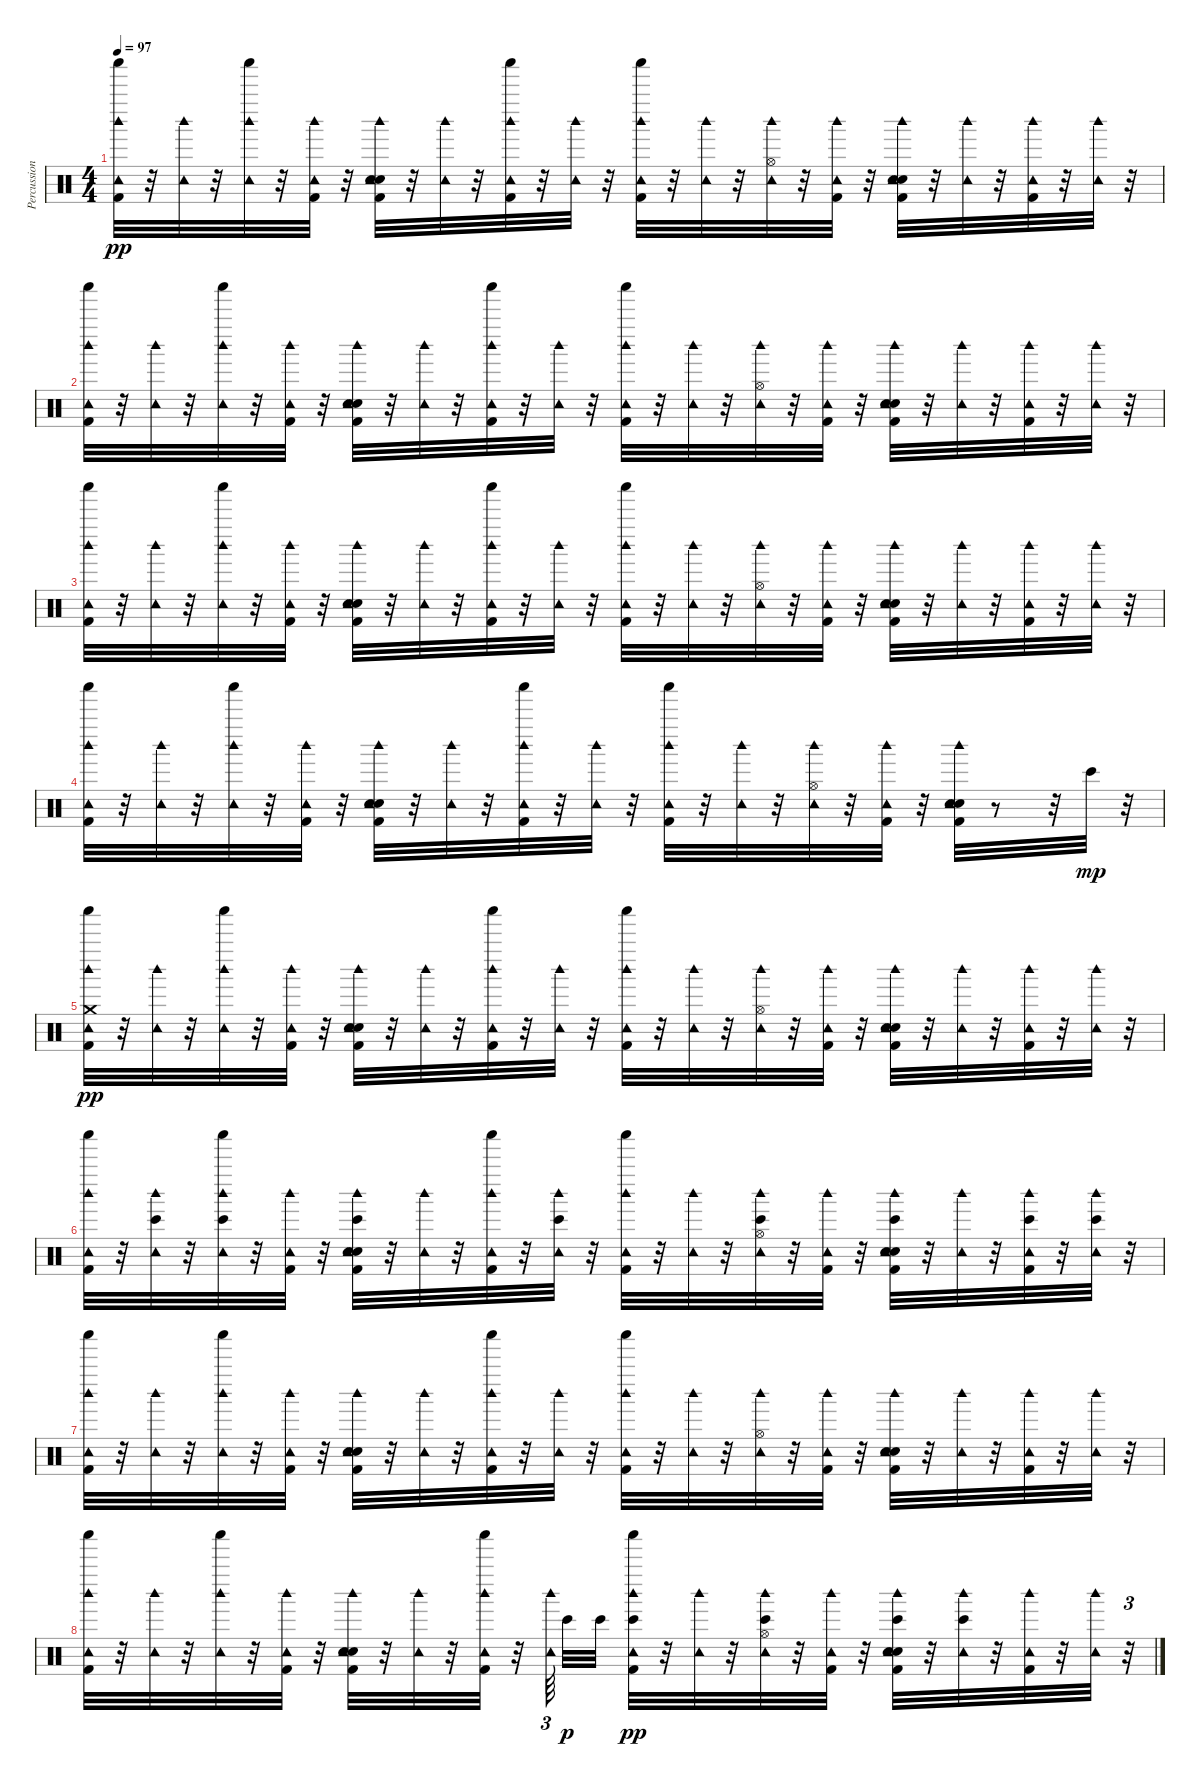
\track ("Percussion" "Percussion") {instrument percussion}
\staff {score}
\articulation defaults
\ts (4 4)
\tempo 97
\clef neutral
\ks c
("Kick (hit) 2" "Tambourine (hit)" "Shaker (hit)" "Woodblock high (hit)").32{dy pp} r.32 ("Tambourine (hit)" "Woodblock high (hit)").32 r.32 ("Tambourine (hit)" "Shaker (hit)" "Woodblock high (hit)").32 r.32 ("Kick (hit) 2" "Tambourine (hit)" "Woodblock high (hit)").32 r.32 ("Kick (hit) 2" "Snare (hit) 2" "Hand Clap (hit)" "Tambourine (hit)" "Woodblock high (hit)").32 r.32 ("Tambourine (hit)" "Woodblock high (hit)").32 r.32 ("Kick (hit) 2" "Tambourine (hit)" "Shaker (hit)" "Woodblock high (hit)").32 r.32 ("Tambourine (hit)" "Woodblock high (hit)").32 r.32 ("Kick (hit) 2" "Tambourine (hit)" "Shaker (hit)" "Woodblock high (hit)").32 r.32 ("Tambourine (hit)" "Woodblock high (hit)").32 r.32 ("Hi-Hat (open)" "Tambourine (hit)" "Woodblock high (hit)").32 r.32 ("Kick (hit) 2" "Tambourine (hit)" "Woodblock high (hit)").32 r.32 ("Kick (hit) 2" "Snare (hit) 2" "Hand Clap (hit)" "Tambourine (hit)" "Woodblock high (hit)").32 r.32 ("Tambourine (hit)" "Woodblock high (hit)").32 r.32 ("Kick (hit) 2" "Tambourine (hit)" "Woodblock high (hit)").32 r.32 ("Tambourine (hit)" "Woodblock high (hit)").32 r.32 |
("Kick (hit) 2" "Tambourine (hit)" "Shaker (hit)" "Woodblock high (hit)").32 r.32 ("Tambourine (hit)" "Woodblock high (hit)").32 r.32 ("Tambourine (hit)" "Shaker (hit)" "Woodblock high (hit)").32 r.32 ("Kick (hit) 2" "Tambourine (hit)" "Woodblock high (hit)").32 r.32 ("Kick (hit) 2" "Snare (hit) 2" "Hand Clap (hit)" "Tambourine (hit)" "Woodblock high (hit)").32 r.32 ("Tambourine (hit)" "Woodblock high (hit)").32 r.32 ("Kick (hit) 2" "Tambourine (hit)" "Shaker (hit)" "Woodblock high (hit)").32 r.32 ("Tambourine (hit)" "Woodblock high (hit)").32 r.32 ("Kick (hit) 2" "Tambourine (hit)" "Shaker (hit)" "Woodblock high (hit)").32 r.32 ("Tambourine (hit)" "Woodblock high (hit)").32 r.32 ("Hi-Hat (open)" "Tambourine (hit)" "Woodblock high (hit)").32 r.32 ("Kick (hit) 2" "Tambourine (hit)" "Woodblock high (hit)").32 r.32 ("Kick (hit) 2" "Snare (hit) 2" "Hand Clap (hit)" "Tambourine (hit)" "Woodblock high (hit)").32 r.32 ("Tambourine (hit)" "Woodblock high (hit)").32 r.32 ("Kick (hit) 2" "Tambourine (hit)" "Woodblock high (hit)").32 r.32 ("Tambourine (hit)" "Woodblock high (hit)").32 r.32 |
("Kick (hit) 2" "Tambourine (hit)" "Shaker (hit)" "Woodblock high (hit)").32 r.32 ("Tambourine (hit)" "Woodblock high (hit)").32 r.32 ("Tambourine (hit)" "Shaker (hit)" "Woodblock high (hit)").32 r.32 ("Kick (hit) 2" "Tambourine (hit)" "Woodblock high (hit)").32 r.32 ("Kick (hit) 2" "Snare (hit) 2" "Hand Clap (hit)" "Tambourine (hit)" "Woodblock high (hit)").32 r.32 ("Tambourine (hit)" "Woodblock high (hit)").32 r.32 ("Kick (hit) 2" "Tambourine (hit)" "Shaker (hit)" "Woodblock high (hit)").32 r.32 ("Tambourine (hit)" "Woodblock high (hit)").32 r.32 ("Kick (hit) 2" "Tambourine (hit)" "Shaker (hit)" "Woodblock high (hit)").32 r.32 ("Tambourine (hit)" "Woodblock high (hit)").32 r.32 ("Hi-Hat (open)" "Tambourine (hit)" "Woodblock high (hit)").32 r.32 ("Kick (hit) 2" "Tambourine (hit)" "Woodblock high (hit)").32 r.32 ("Kick (hit) 2" "Snare (hit) 2" "Hand Clap (hit)" "Tambourine (hit)" "Woodblock high (hit)").32 r.32 ("Tambourine (hit)" "Woodblock high (hit)").32 r.32 ("Kick (hit) 2" "Tambourine (hit)" "Woodblock high (hit)").32 r.32 ("Tambourine (hit)" "Woodblock high (hit)").32 r.32 |
("Kick (hit) 2" "Tambourine (hit)" "Shaker (hit)" "Woodblock high (hit)").32 r.32 ("Tambourine (hit)" "Woodblock high (hit)").32 r.32 ("Tambourine (hit)" "Shaker (hit)" "Woodblock high (hit)").32 r.32 ("Kick (hit) 2" "Tambourine (hit)" "Woodblock high (hit)").32 r.32 ("Kick (hit) 2" "Snare (hit) 2" "Hand Clap (hit)" "Tambourine (hit)" "Woodblock high (hit)").32 r.32 ("Tambourine (hit)" "Woodblock high (hit)").32 r.32 ("Kick (hit) 2" "Tambourine (hit)" "Shaker (hit)" "Woodblock high (hit)").32 r.32 ("Tambourine (hit)" "Woodblock high (hit)").32 r.32 ("Kick (hit) 2" "Tambourine (hit)" "Shaker (hit)" "Woodblock high (hit)").32 r.32 ("Tambourine (hit)" "Woodblock high (hit)").32 r.32 ("Hi-Hat (open)" "Tambourine (hit)" "Woodblock high (hit)").32 r.32 ("Kick (hit) 2" "Tambourine (hit)" "Woodblock high (hit)").32 r.32 ("Kick (hit) 2" "Snare (hit) 2" "Hand Clap (hit)" "Tambourine (hit)" "Woodblock high (hit)").32 r.8 r.32 "Bongo High (hit)".32{dy mp} r.32 |
("Kick (hit) 2" "Tambourine (hit)" "Crash medium (hit)" "Shaker (hit)" "Woodblock high (hit)").32{dy pp} r.32 ("Tambourine (hit)" "Woodblock high (hit)").32 r.32 ("Tambourine (hit)" "Shaker (hit)" "Woodblock high (hit)").32 r.32 ("Kick (hit) 2" "Tambourine (hit)" "Woodblock high (hit)").32 r.32 ("Kick (hit) 2" "Snare (hit) 2" "Hand Clap (hit)" "Tambourine (hit)" "Woodblock high (hit)").32 r.32 ("Tambourine (hit)" "Woodblock high (hit)").32 r.32 ("Kick (hit) 2" "Tambourine (hit)" "Shaker (hit)" "Woodblock high (hit)").32 r.32 ("Tambourine (hit)" "Woodblock high (hit)").32 r.32 ("Kick (hit) 2" "Tambourine (hit)" "Shaker (hit)" "Woodblock high (hit)").32 r.32 ("Tambourine (hit)" "Woodblock high (hit)").32 r.32 ("Hi-Hat (open)" "Tambourine (hit)" "Woodblock high (hit)").32 r.32 ("Kick (hit) 2" "Tambourine (hit)" "Woodblock high (hit)").32 r.32 ("Kick (hit) 2" "Snare (hit) 2" "Hand Clap (hit)" "Tambourine (hit)" "Woodblock high (hit)").32 r.32 ("Tambourine (hit)" "Woodblock high (hit)").32 r.32 ("Kick (hit) 2" "Tambourine (hit)" "Woodblock high (hit)").32 r.32 ("Tambourine (hit)" "Woodblock high (hit)").32 r.32 |
("Kick (hit) 2" "Tambourine (hit)" "Shaker (hit)" "Woodblock high (hit)").32 r.32 ("Tambourine (hit)" "Bongo High (hit)" "Woodblock high (hit)").32 r.32 ("Tambourine (hit)" "Bongo High (hit)" "Shaker (hit)" "Woodblock high (hit)").32 r.32 ("Kick (hit) 2" "Tambourine (hit)" "Woodblock high (hit)").32 r.32 ("Kick (hit) 2" "Snare (hit) 2" "Hand Clap (hit)" "Tambourine (hit)" "Bongo High (hit)" "Woodblock high (hit)").32 r.32 ("Tambourine (hit)" "Woodblock high (hit)").32 r.32 ("Kick (hit) 2" "Tambourine (hit)" "Shaker (hit)" "Woodblock high (hit)").32 r.32 ("Tambourine (hit)" "Bongo High (hit)" "Woodblock high (hit)").32 r.32 ("Kick (hit) 2" "Tambourine (hit)" "Shaker (hit)" "Woodblock high (hit)").32 r.32 ("Tambourine (hit)" "Woodblock high (hit)").32 r.32 ("Hi-Hat (open)" "Tambourine (hit)" "Bongo High (hit)" "Woodblock high (hit)").32 r.32 ("Kick (hit) 2" "Tambourine (hit)" "Woodblock high (hit)").32 r.32 ("Kick (hit) 2" "Snare (hit) 2" "Hand Clap (hit)" "Tambourine (hit)" "Bongo High (hit)" "Woodblock high (hit)").32 r.32 ("Tambourine (hit)" "Woodblock high (hit)").32 r.32 ("Kick (hit) 2" "Tambourine (hit)" "Bongo High (hit)" "Woodblock high (hit)").32 r.32 ("Tambourine (hit)" "Bongo High (hit)" "Woodblock high (hit)").32 r.32 |
("Kick (hit) 2" "Tambourine (hit)" "Shaker (hit)" "Woodblock high (hit)").32 r.32 ("Tambourine (hit)" "Woodblock high (hit)").32 r.32 ("Tambourine (hit)" "Shaker (hit)" "Woodblock high (hit)").32 r.32 ("Kick (hit) 2" "Tambourine (hit)" "Woodblock high (hit)").32 r.32 ("Kick (hit) 2" "Snare (hit) 2" "Hand Clap (hit)" "Tambourine (hit)" "Woodblock high (hit)").32 r.32 ("Tambourine (hit)" "Woodblock high (hit)").32 r.32 ("Kick (hit) 2" "Tambourine (hit)" "Shaker (hit)" "Woodblock high (hit)").32 r.32 ("Tambourine (hit)" "Woodblock high (hit)").32 r.32 ("Kick (hit) 2" "Tambourine (hit)" "Shaker (hit)" "Woodblock high (hit)").32 r.32 ("Tambourine (hit)" "Woodblock high (hit)").32 r.32 ("Hi-Hat (open)" "Tambourine (hit)" "Woodblock high (hit)").32 r.32 ("Kick (hit) 2" "Tambourine (hit)" "Woodblock high (hit)").32 r.32 ("Kick (hit) 2" "Snare (hit) 2" "Hand Clap (hit)" "Tambourine (hit)" "Woodblock high (hit)").32 r.32 ("Tambourine (hit)" "Woodblock high (hit)").32 r.32 ("Kick (hit) 2" "Tambourine (hit)" "Woodblock high (hit)").32 r.32 ("Tambourine (hit)" "Woodblock high (hit)").32 r.32 |
("Kick (hit) 2" "Tambourine (hit)" "Shaker (hit)" "Woodblock high (hit)").32 r.32 ("Tambourine (hit)" "Woodblock high (hit)").32 r.32 ("Tambourine (hit)" "Shaker (hit)" "Woodblock high (hit)").32 r.32 ("Kick (hit) 2" "Tambourine (hit)" "Woodblock high (hit)").32 r.32 ("Kick (hit) 2" "Snare (hit) 2" "Hand Clap (hit)" "Tambourine (hit)" "Woodblock high (hit)").32 r.32 ("Tambourine (hit)" "Woodblock high (hit)").32 r.32 ("Kick (hit) 2" "Tambourine (hit)" "Shaker (hit)" "Woodblock high (hit)").32 r.32 ("Tambourine (hit)" "Woodblock high (hit)").64{tu (3 2) beam splitsecondary} "Bongo High (hit)".32{dy p} "Bongo High (hit)".32 ("Kick (hit) 2" "Tambourine (hit)" "Bongo High (hit)" "Shaker (hit)" "Woodblock high (hit)").32{dy pp} r.32 ("Tambourine (hit)" "Woodblock high (hit)").32 r.32 ("Hi-Hat (open)" "Tambourine (hit)" "Bongo High (hit)" "Woodblock high (hit)").32 r.32 ("Kick (hit) 2" "Tambourine (hit)" "Woodblock high (hit)").32 r.32 ("Kick (hit) 2" "Snare (hit) 2" "Hand Clap (hit)" "Tambourine (hit)" "Bongo High (hit)" "Woodblock high (hit)").32 r.32 ("Tambourine (hit)" "Bongo High (hit)" "Woodblock high (hit)").32 r.32 ("Kick (hit) 2" "Tambourine (hit)" "Woodblock high (hit)").32 r.32 ("Tambourine (hit)" "Woodblock high (hit)").32 r.32{tu (3 2)}
